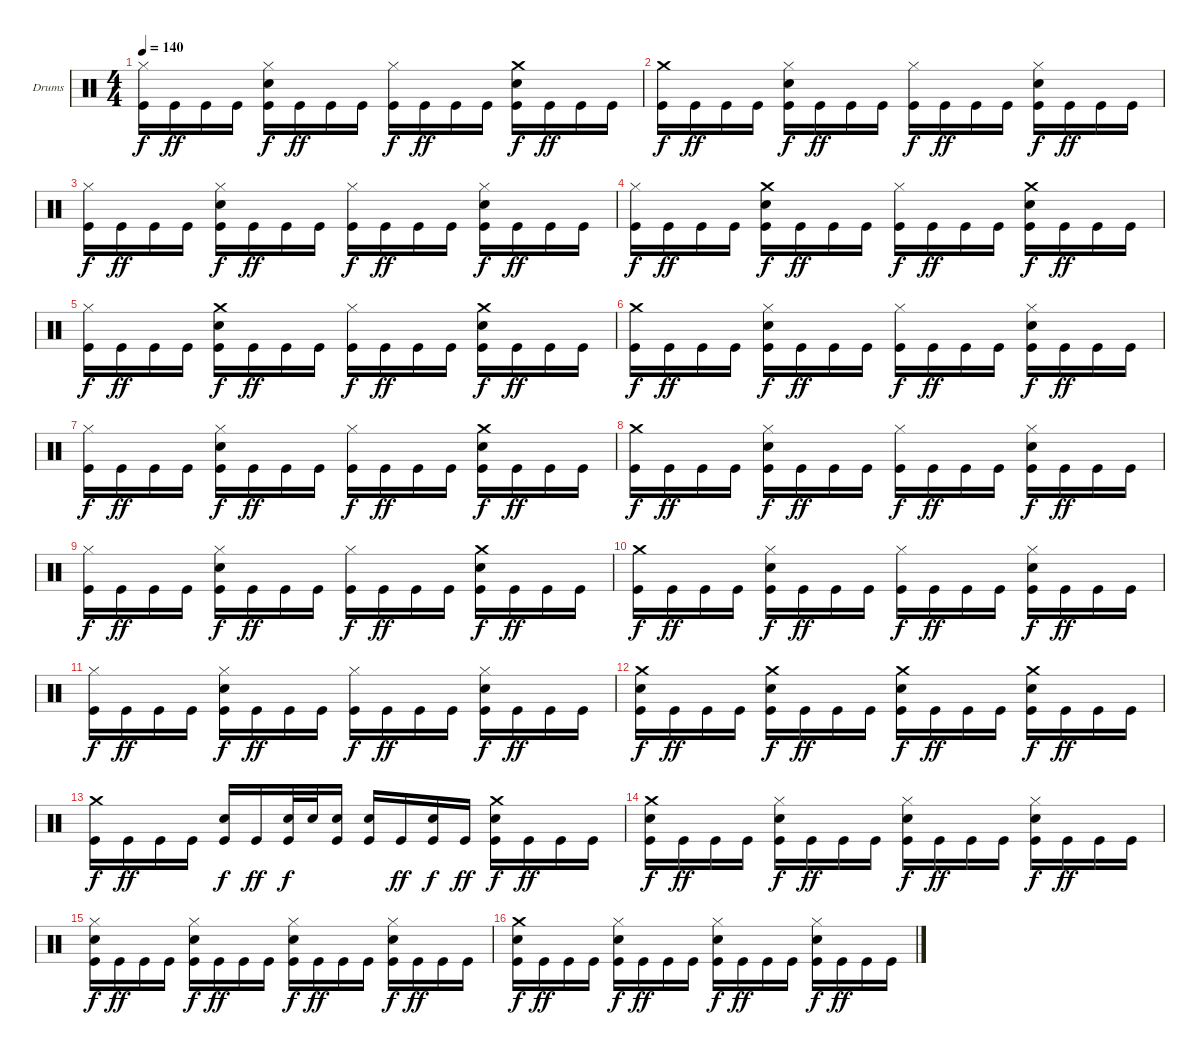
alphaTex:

\defaultSystemsLayout 4
\bracketExtendMode groupsimilarinstruments
\firstSystemTrackNameOrientation horizontal
\otherSystemsTrackNameOrientation horizontal
\track ("Drumkit" "Drums") {instrument percussion}
\staff {score}
\articulation defaults
\ts (4 4)
\tempo 140
\clef neutral
\ks c
("Hi-Hat (closed)" "Kick (hit)").16{dy f} "Kick (hit)".16{dy ff} "Kick (hit)".16 "Kick (hit)".16 ("Hi-Hat (closed)" "Snare (hit) 2" "Kick (hit)").16{dy f} "Kick (hit)".16{dy ff} "Kick (hit)".16 "Kick (hit)".16 ("Hi-Hat (closed)" "Kick (hit)").16{dy f} "Kick (hit)".16{dy ff} "Kick (hit)".16 "Kick (hit)".16 ("Crash medium (hit)" "Snare (hit) 2" "Kick (hit)").16{dy f} "Kick (hit)".16{dy ff} "Kick (hit)".16 "Kick (hit)".16 |
("Crash medium (hit)" "Kick (hit)").16{dy f} "Kick (hit)".16{dy ff} "Kick (hit)".16 "Kick (hit)".16 ("Hi-Hat (closed)" "Snare (hit) 2" "Kick (hit)").16{dy f} "Kick (hit)".16{dy ff} "Kick (hit)".16 "Kick (hit)".16 ("Hi-Hat (closed)" "Kick (hit)").16{dy f} "Kick (hit)".16{dy ff} "Kick (hit)".16 "Kick (hit)".16 ("Hi-Hat (closed)" "Snare (hit) 2" "Kick (hit)").16{dy f} "Kick (hit)".16{dy ff} "Kick (hit)".16 "Kick (hit)".16 |
("Hi-Hat (closed)" "Kick (hit)").16{dy f} "Kick (hit)".16{dy ff} "Kick (hit)".16 "Kick (hit)".16 ("Hi-Hat (closed)" "Snare (hit) 2" "Kick (hit)").16{dy f} "Kick (hit)".16{dy ff} "Kick (hit)".16 "Kick (hit)".16 ("Hi-Hat (closed)" "Kick (hit)").16{dy f} "Kick (hit)".16{dy ff} "Kick (hit)".16 "Kick (hit)".16 ("Hi-Hat (closed)" "Snare (hit) 2" "Kick (hit)").16{dy f} "Kick (hit)".16{dy ff} "Kick (hit)".16 "Kick (hit)".16 |
("Hi-Hat (closed)" "Kick (hit)").16{dy f} "Kick (hit)".16{dy ff} "Kick (hit)".16 "Kick (hit)".16 ("Crash medium (hit)" "Snare (hit) 2" "Kick (hit)").16{dy f} "Kick (hit)".16{dy ff} "Kick (hit)".16 "Kick (hit)".16 ("Hi-Hat (closed)" "Kick (hit)").16{dy f} "Kick (hit)".16{dy ff} "Kick (hit)".16 "Kick (hit)".16 ("Crash medium (hit)" "Snare (hit) 2" "Kick (hit)").16{dy f} "Kick (hit)".16{dy ff} "Kick (hit)".16 "Kick (hit)".16 |
("Hi-Hat (closed)" "Kick (hit)").16{dy f} "Kick (hit)".16{dy ff} "Kick (hit)".16 "Kick (hit)".16 ("Crash medium (hit)" "Snare (hit) 2" "Kick (hit)").16{dy f} "Kick (hit)".16{dy ff} "Kick (hit)".16 "Kick (hit)".16 ("Hi-Hat (closed)" "Kick (hit)").16{dy f} "Kick (hit)".16{dy ff} "Kick (hit)".16 "Kick (hit)".16 ("Crash medium (hit)" "Snare (hit) 2" "Kick (hit)").16{dy f} "Kick (hit)".16{dy ff} "Kick (hit)".16 "Kick (hit)".16 |
("Crash medium (hit)" "Kick (hit)").16{dy f} "Kick (hit)".16{dy ff} "Kick (hit)".16 "Kick (hit)".16 ("Hi-Hat (closed)" "Snare (hit) 2" "Kick (hit)").16{dy f} "Kick (hit)".16{dy ff} "Kick (hit)".16 "Kick (hit)".16 ("Hi-Hat (closed)" "Kick (hit)").16{dy f} "Kick (hit)".16{dy ff} "Kick (hit)".16 "Kick (hit)".16 ("Hi-Hat (closed)" "Snare (hit) 2" "Kick (hit)").16{dy f} "Kick (hit)".16{dy ff} "Kick (hit)".16 "Kick (hit)".16 |
("Hi-Hat (closed)" "Kick (hit)").16{dy f} "Kick (hit)".16{dy ff} "Kick (hit)".16 "Kick (hit)".16 ("Hi-Hat (closed)" "Snare (hit) 2" "Kick (hit)").16{dy f} "Kick (hit)".16{dy ff} "Kick (hit)".16 "Kick (hit)".16 ("Hi-Hat (closed)" "Kick (hit)").16{dy f} "Kick (hit)".16{dy ff} "Kick (hit)".16 "Kick (hit)".16 ("Crash medium (hit)" "Snare (hit) 2" "Kick (hit)").16{dy f} "Kick (hit)".16{dy ff} "Kick (hit)".16 "Kick (hit)".16 |
("Crash medium (hit)" "Kick (hit)").16{dy f} "Kick (hit)".16{dy ff} "Kick (hit)".16 "Kick (hit)".16 ("Hi-Hat (closed)" "Snare (hit) 2" "Kick (hit)").16{dy f} "Kick (hit)".16{dy ff} "Kick (hit)".16 "Kick (hit)".16 ("Hi-Hat (closed)" "Kick (hit)").16{dy f} "Kick (hit)".16{dy ff} "Kick (hit)".16 "Kick (hit)".16 ("Hi-Hat (closed)" "Snare (hit) 2" "Kick (hit)").16{dy f} "Kick (hit)".16{dy ff} "Kick (hit)".16 "Kick (hit)".16 |
("Hi-Hat (closed)" "Kick (hit)").16{dy f} "Kick (hit)".16{dy ff} "Kick (hit)".16 "Kick (hit)".16 ("Hi-Hat (closed)" "Snare (hit) 2" "Kick (hit)").16{dy f} "Kick (hit)".16{dy ff} "Kick (hit)".16 "Kick (hit)".16 ("Hi-Hat (closed)" "Kick (hit)").16{dy f} "Kick (hit)".16{dy ff} "Kick (hit)".16 "Kick (hit)".16 ("Crash medium (hit)" "Snare (hit) 2" "Kick (hit)").16{dy f} "Kick (hit)".16{dy ff} "Kick (hit)".16 "Kick (hit)".16 |
("Crash medium (hit)" "Kick (hit)").16{dy f} "Kick (hit)".16{dy ff} "Kick (hit)".16 "Kick (hit)".16 ("Hi-Hat (closed)" "Snare (hit) 2" "Kick (hit)").16{dy f} "Kick (hit)".16{dy ff} "Kick (hit)".16 "Kick (hit)".16 ("Hi-Hat (closed)" "Kick (hit)").16{dy f} "Kick (hit)".16{dy ff} "Kick (hit)".16 "Kick (hit)".16 ("Hi-Hat (closed)" "Snare (hit) 2" "Kick (hit)").16{dy f} "Kick (hit)".16{dy ff} "Kick (hit)".16 "Kick (hit)".16 |
("Hi-Hat (closed)" "Kick (hit)").16{dy f} "Kick (hit)".16{dy ff} "Kick (hit)".16 "Kick (hit)".16 ("Hi-Hat (closed)" "Snare (hit) 2" "Kick (hit)").16{dy f} "Kick (hit)".16{dy ff} "Kick (hit)".16 "Kick (hit)".16 ("Hi-Hat (closed)" "Kick (hit)").16{dy f} "Kick (hit)".16{dy ff} "Kick (hit)".16 "Kick (hit)".16 ("Hi-Hat (closed)" "Snare (hit) 2" "Kick (hit)").16{dy f} "Kick (hit)".16{dy ff} "Kick (hit)".16 "Kick (hit)".16 |
("Crash medium (hit)" "Snare (hit) 2" "Kick (hit)").16{dy f} "Kick (hit)".16{dy ff} "Kick (hit)".16 "Kick (hit)".16 ("Crash medium (hit)" "Snare (hit) 2" "Kick (hit)").16{dy f} "Kick (hit)".16{dy ff} "Kick (hit)".16 "Kick (hit)".16 ("Crash medium (hit)" "Snare (hit) 2" "Kick (hit)").16{dy f} "Kick (hit)".16{dy ff} "Kick (hit)".16 "Kick (hit)".16 ("Crash medium (hit)" "Snare (hit) 2" "Kick (hit)").16{dy f} "Kick (hit)".16{dy ff} "Kick (hit)".16 "Kick (hit)".16 |
("Crash medium (hit)" "Kick (hit)").16{dy f} "Kick (hit)".16{dy ff} "Kick (hit)".16 "Kick (hit)".16 ("Snare (hit) 2" "Kick (hit)").16{dy f} "Kick (hit)".16{dy ff} ("Snare (hit) 2" "Kick (hit)").32{dy f} "Snare (hit) 2".32 ("Snare (hit) 2" "Kick (hit)").16 ("Snare (hit) 2" "Kick (hit)").16 "Kick (hit)".16{dy ff} ("Snare (hit) 2" "Kick (hit)").16{dy f} "Kick (hit)".16{dy ff} ("Crash medium (hit)" "Snare (hit) 2" "Kick (hit)").16{dy f} "Kick (hit)".16{dy ff} "Kick (hit)".16 "Kick (hit)".16 |
("Crash medium (hit)" "Snare (hit) 2" "Kick (hit)").16{dy f} "Kick (hit)".16{dy ff} "Kick (hit)".16 "Kick (hit)".16 ("Hi-Hat (closed)" "Snare (hit) 2" "Kick (hit)").16{dy f} "Kick (hit)".16{dy ff} "Kick (hit)".16 "Kick (hit)".16 ("Hi-Hat (closed)" "Snare (hit) 2" "Kick (hit)").16{dy f} "Kick (hit)".16{dy ff} "Kick (hit)".16 "Kick (hit)".16 ("Hi-Hat (closed)" "Snare (hit) 2" "Kick (hit)").16{dy f} "Kick (hit)".16{dy ff} "Kick (hit)".16 "Kick (hit)".16 |
("Hi-Hat (closed)" "Snare (hit) 2" "Kick (hit)").16{dy f} "Kick (hit)".16{dy ff} "Kick (hit)".16 "Kick (hit)".16 ("Hi-Hat (closed)" "Snare (hit) 2" "Kick (hit)").16{dy f} "Kick (hit)".16{dy ff} "Kick (hit)".16 "Kick (hit)".16 ("Hi-Hat (closed)" "Snare (hit) 2" "Kick (hit)").16{dy f} "Kick (hit)".16{dy ff} "Kick (hit)".16 "Kick (hit)".16 ("Hi-Hat (closed)" "Snare (hit) 2" "Kick (hit)").16{dy f} "Kick (hit)".16{dy ff} "Kick (hit)".16 "Kick (hit)".16 |
("Crash medium (hit)" "Snare (hit) 2" "Kick (hit)").16{dy f} "Kick (hit)".16{dy ff} "Kick (hit)".16 "Kick (hit)".16 ("Hi-Hat (closed)" "Snare (hit) 2" "Kick (hit)").16{dy f} "Kick (hit)".16{dy ff} "Kick (hit)".16 "Kick (hit)".16 ("Hi-Hat (closed)" "Snare (hit) 2" "Kick (hit)").16{dy f} "Kick (hit)".16{dy ff} "Kick (hit)".16 "Kick (hit)".16 ("Hi-Hat (closed)" "Snare (hit) 2" "Kick (hit)").16{dy f} "Kick (hit)".16{dy ff} "Kick (hit)".16 "Kick (hit)".16
